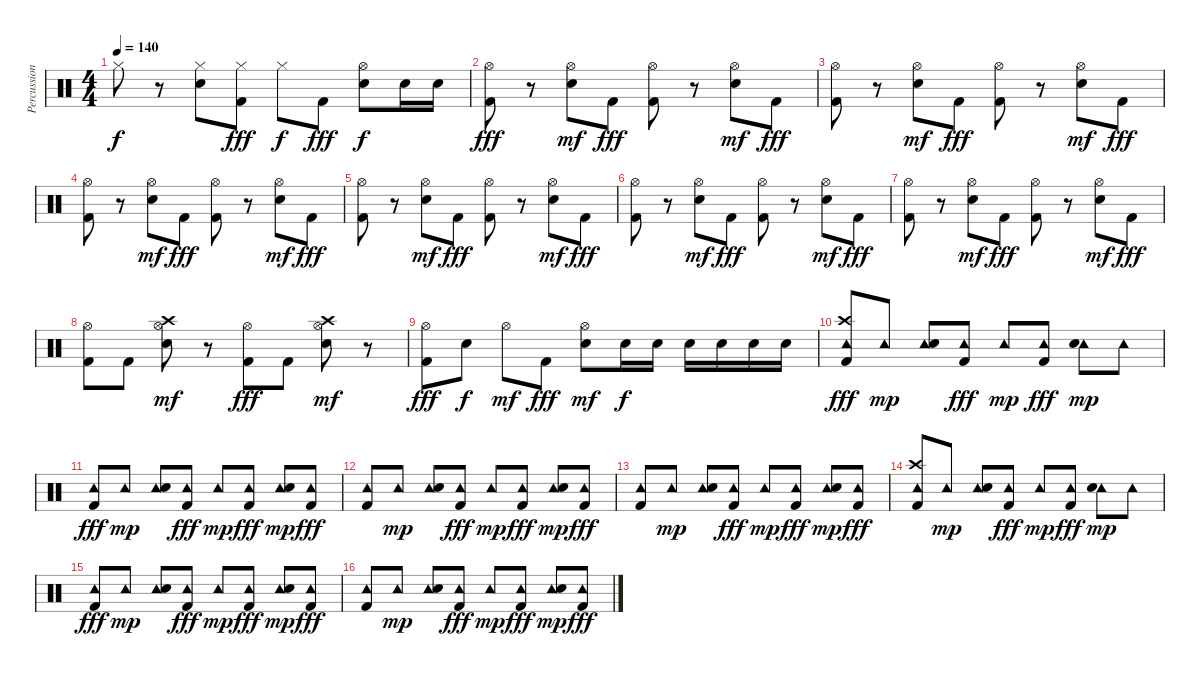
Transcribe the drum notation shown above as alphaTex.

\track ("Percussion" "Percussion") {instrument percussion}
\staff {score}
\articulation defaults
\ts (4 4)
\tempo 140
\clef neutral
\ks c "Hi-Hat (closed)".8{dy f}
r.8 ("Hi-Hat (closed)" "Electric Snare (hit)").8 ("Hi-Hat (closed)" "Kick (hit) 2").8{dy fff} "Hi-Hat (closed)".8{dy f} "Kick (hit) 2".8{dy fff} ("Hi-Hat (open)" "Electric Snare (hit)").8{dy f} "Electric Snare (hit)".16 "Electric Snare (hit)".16 |
("Hi-Hat (open)" "Kick (hit) 2").8{dy fff} r.8 ("Hi-Hat (open)" "Electric Snare (hit)").8{dy mf} "Kick (hit) 2".8{dy fff} ("Hi-Hat (open)" "Kick (hit) 2").8 r.8 ("Hi-Hat (open)" "Electric Snare (hit)").8{dy mf} "Kick (hit) 2".8{dy fff} |
("Hi-Hat (open)" "Kick (hit) 2").8 r.8 ("Hi-Hat (open)" "Electric Snare (hit)").8{dy mf} "Kick (hit) 2".8{dy fff} ("Hi-Hat (open)" "Kick (hit) 2").8 r.8 ("Hi-Hat (open)" "Electric Snare (hit)").8{dy mf} "Kick (hit) 2".8{dy fff} |
("Hi-Hat (open)" "Kick (hit) 2").8 r.8 ("Hi-Hat (open)" "Electric Snare (hit)").8{dy mf} "Kick (hit) 2".8{dy fff} ("Hi-Hat (open)" "Kick (hit) 2").8 r.8 ("Hi-Hat (open)" "Electric Snare (hit)").8{dy mf} "Kick (hit) 2".8{dy fff} |
("Hi-Hat (open)" "Kick (hit) 2").8 r.8 ("Hi-Hat (open)" "Electric Snare (hit)").8{dy mf} "Kick (hit) 2".8{dy fff} ("Hi-Hat (open)" "Kick (hit) 2").8 r.8 ("Hi-Hat (open)" "Electric Snare (hit)").8{dy mf} "Kick (hit) 2".8{dy fff} |
("Hi-Hat (open)" "Kick (hit) 2").8 r.8 ("Hi-Hat (open)" "Electric Snare (hit)").8{dy mf} "Kick (hit) 2".8{dy fff} ("Hi-Hat (open)" "Kick (hit) 2").8 r.8 ("Hi-Hat (open)" "Electric Snare (hit)").8{dy mf} "Kick (hit) 2".8{dy fff} |
("Hi-Hat (open)" "Kick (hit) 2").8 r.8 ("Hi-Hat (open)" "Electric Snare (hit)").8{dy mf} "Kick (hit) 2".8{dy fff} ("Hi-Hat (open)" "Kick (hit) 2").8 r.8 ("Hi-Hat (open)" "Electric Snare (hit)").8{dy mf} "Kick (hit) 2".8{dy fff} |
("Hi-Hat (open)" "Kick (hit) 2").8 "Kick (hit) 2".8 ("Hi-Hat (open)" "Electric Snare (hit)" "Crash high (hit)").8{dy mf} r.8 ("Hi-Hat (open)" "Kick (hit) 2").8{dy fff} "Kick (hit) 2".8 ("Hi-Hat (open)" "Electric Snare (hit)" "Crash high (hit)").8{dy mf} r.8 |
("Hi-Hat (open)" "Kick (hit) 2").8{dy fff} "Electric Snare (hit)".8{dy f} "Hi-Hat (open)".8{dy mf} "Kick (hit) 2".8{dy fff} ("Hi-Hat (open)" "Electric Snare (hit)").8{dy mf} "Electric Snare (hit)".16{dy f} "Electric Snare (hit)".16 "Electric Snare (hit)".16 "Electric Snare (hit)".16 "Electric Snare (hit)".16 "Electric Snare (hit)".16 |
("Tambourine (hit)" "Kick (hit) 2" "Crash high (hit)").8{dy fff} "Tambourine (hit)".8{dy mp} ("Tambourine (hit)" "Electric Snare (hit)").8 ("Tambourine (hit)" "Kick (hit) 2").8{dy fff} "Tambourine (hit)".8{dy mp} ("Tambourine (hit)" "Kick (hit) 2").8{dy fff} ("Tambourine (hit)" "Electric Snare (hit)").8{dy mp} "Tambourine (hit)".8 |
("Tambourine (hit)" "Kick (hit) 2").8{dy fff} "Tambourine (hit)".8{dy mp} ("Tambourine (hit)" "Electric Snare (hit)").8 ("Tambourine (hit)" "Kick (hit) 2").8{dy fff} "Tambourine (hit)".8{dy mp} ("Tambourine (hit)" "Kick (hit) 2").8{dy fff} ("Tambourine (hit)" "Electric Snare (hit)").8{dy mp} ("Tambourine (hit)" "Kick (hit) 2").8{dy fff} |
("Tambourine (hit)" "Kick (hit) 2").8 "Tambourine (hit)".8{dy mp} ("Tambourine (hit)" "Electric Snare (hit)").8 ("Tambourine (hit)" "Kick (hit) 2").8{dy fff} "Tambourine (hit)".8{dy mp} ("Tambourine (hit)" "Kick (hit) 2").8{dy fff} ("Tambourine (hit)" "Electric Snare (hit)").8{dy mp} ("Tambourine (hit)" "Kick (hit) 2").8{dy fff} |
("Tambourine (hit)" "Kick (hit) 2").8 "Tambourine (hit)".8{dy mp} ("Tambourine (hit)" "Electric Snare (hit)").8 ("Tambourine (hit)" "Kick (hit) 2").8{dy fff} "Tambourine (hit)".8{dy mp} ("Tambourine (hit)" "Kick (hit) 2").8{dy fff} ("Tambourine (hit)" "Electric Snare (hit)").8{dy mp} ("Tambourine (hit)" "Kick (hit) 2").8{dy fff} |
("Tambourine (hit)" "Kick (hit) 2" "Crash high (hit)").8 "Tambourine (hit)".8{dy mp} ("Tambourine (hit)" "Electric Snare (hit)").8 ("Tambourine (hit)" "Kick (hit) 2").8{dy fff} "Tambourine (hit)".8{dy mp} ("Tambourine (hit)" "Kick (hit) 2").8{dy fff} ("Tambourine (hit)" "Electric Snare (hit)").8{dy mp} "Tambourine (hit)".8 |
("Tambourine (hit)" "Kick (hit) 2").8{dy fff} "Tambourine (hit)".8{dy mp} ("Tambourine (hit)" "Electric Snare (hit)").8 ("Tambourine (hit)" "Kick (hit) 2").8{dy fff} "Tambourine (hit)".8{dy mp} ("Tambourine (hit)" "Kick (hit) 2").8{dy fff} ("Tambourine (hit)" "Electric Snare (hit)").8{dy mp} ("Tambourine (hit)" "Kick (hit) 2").8{dy fff} |
("Tambourine (hit)" "Kick (hit) 2").8 "Tambourine (hit)".8{dy mp} ("Tambourine (hit)" "Electric Snare (hit)").8 ("Tambourine (hit)" "Kick (hit) 2").8{dy fff} "Tambourine (hit)".8{dy mp} ("Tambourine (hit)" "Kick (hit) 2").8{dy fff} ("Tambourine (hit)" "Electric Snare (hit)").8{dy mp} ("Tambourine (hit)" "Kick (hit) 2").8{dy fff}
